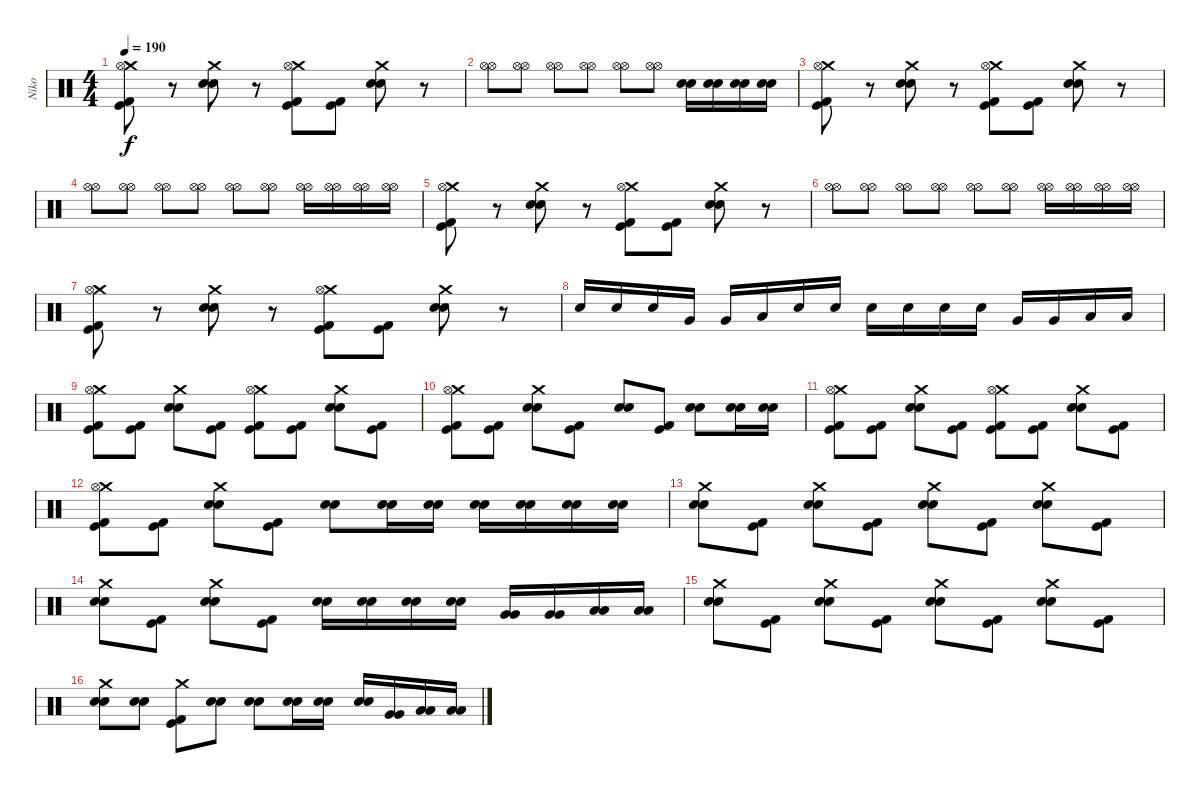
\track ("Niko" "Niko") {instrument percussion}
\staff {score}
\articulation defaults
\ts (4 4)
\tempo 190
\clef neutral
\ks c
("Crash medium (hit)" "Hi-Hat (open)" "Kick (hit)" "Kick (hit) 2").8{dy f} r.8 ("Crash medium (hit)" "Electric Snare (hit)" "Electric Snare (hit)").8 r.8 ("Crash medium (hit)" "Hi-Hat (open)" "Kick (hit)" "Kick (hit) 2").8 ("Kick (hit) 2" "Kick (hit)").8 ("Crash medium (hit)" "Electric Snare (hit)" "Electric Snare (hit)").8 r.8 |
("Hi-Hat (open)" "Hi-Hat (open)").8 ("Hi-Hat (open)" "Hi-Hat (open)").8 ("Hi-Hat (open)" "Hi-Hat (open)").8 ("Hi-Hat (open)" "Hi-Hat (open)").8 ("Hi-Hat (open)" "Hi-Hat (open)").8 ("Hi-Hat (open)" "Hi-Hat (open)").8 ("Electric Snare (hit)" "Electric Snare (hit)").16 ("Electric Snare (hit)" "Electric Snare (hit)").16 ("Electric Snare (hit)" "Electric Snare (hit)").16 ("Electric Snare (hit)" "Electric Snare (hit)").16 |
("Crash medium (hit)" "Hi-Hat (open)" "Kick (hit)" "Kick (hit) 2").8 r.8 ("Crash medium (hit)" "Electric Snare (hit)" "Electric Snare (hit)").8 r.8 ("Crash medium (hit)" "Hi-Hat (open)" "Kick (hit)" "Kick (hit) 2").8 ("Kick (hit) 2" "Kick (hit)").8 ("Crash medium (hit)" "Electric Snare (hit)" "Electric Snare (hit)").8 r.8 |
("Hi-Hat (open)" "Hi-Hat (open)").8 ("Hi-Hat (open)" "Hi-Hat (open)").8 ("Hi-Hat (open)" "Hi-Hat (open)").8 ("Hi-Hat (open)" "Hi-Hat (open)").8 ("Hi-Hat (open)" "Hi-Hat (open)").8 ("Hi-Hat (open)" "Hi-Hat (open)").8 ("Hi-Hat (open)" "Hi-Hat (open)").16 ("Hi-Hat (open)" "Hi-Hat (open)").16 ("Hi-Hat (open)" "Hi-Hat (open)").16 ("Hi-Hat (open)" "Hi-Hat (open)").16 |
("Crash medium (hit)" "Hi-Hat (open)" "Kick (hit)" "Kick (hit) 2").8 r.8 ("Crash medium (hit)" "Electric Snare (hit)" "Electric Snare (hit)").8 r.8 ("Crash medium (hit)" "Hi-Hat (open)" "Kick (hit)" "Kick (hit) 2").8 ("Kick (hit) 2" "Kick (hit)").8 ("Crash medium (hit)" "Electric Snare (hit)" "Electric Snare (hit)").8 r.8 |
("Hi-Hat (open)" "Hi-Hat (open)").8 ("Hi-Hat (open)" "Hi-Hat (open)").8 ("Hi-Hat (open)" "Hi-Hat (open)").8 ("Hi-Hat (open)" "Hi-Hat (open)").8 ("Hi-Hat (open)" "Hi-Hat (open)").8 ("Hi-Hat (open)" "Hi-Hat (open)").8 ("Hi-Hat (open)" "Hi-Hat (open)").16 ("Hi-Hat (open)" "Hi-Hat (open)").16 ("Hi-Hat (open)" "Hi-Hat (open)").16 ("Hi-Hat (open)" "Hi-Hat (open)").16 |
("Crash medium (hit)" "Hi-Hat (open)" "Kick (hit)" "Kick (hit) 2").8 r.8 ("Crash medium (hit)" "Electric Snare (hit)" "Electric Snare (hit)").8 r.8 ("Crash medium (hit)" "Hi-Hat (open)" "Kick (hit)" "Kick (hit) 2").8 ("Kick (hit) 2" "Kick (hit)").8 ("Crash medium (hit)" "Electric Snare (hit)" "Electric Snare (hit)").8 r.8 |
"Electric Snare (hit)".16 "Electric Snare (hit)".16 "Electric Snare (hit)".16 "Very Low Tom (hit)".16 "Very Low Tom (hit)".16 "Low Floor Tom (hit)".16 "Electric Snare (hit)".16 "Electric Snare (hit)".16 "Electric Snare (hit)".16 "Electric Snare (hit)".16 "Electric Snare (hit)".16 "Electric Snare (hit)".16 "Very Low Tom (hit)".16 "Very Low Tom (hit)".16 "Low Floor Tom (hit)".16 "Low Floor Tom (hit)".16 |
("Crash medium (hit)" "Hi-Hat (open)" "Kick (hit)" "Kick (hit) 2").8 ("Kick (hit) 2" "Kick (hit)").8 ("Crash medium (hit)" "Electric Snare (hit)" "Electric Snare (hit)").8 ("Kick (hit) 2" "Kick (hit)").8 ("Crash medium (hit)" "Hi-Hat (open)" "Kick (hit)" "Kick (hit) 2").8 ("Kick (hit) 2" "Kick (hit)").8 ("Crash medium (hit)" "Electric Snare (hit)" "Electric Snare (hit)").8 ("Kick (hit) 2" "Kick (hit)").8 |
("Crash medium (hit)" "Hi-Hat (open)" "Kick (hit)" "Kick (hit) 2").8 ("Kick (hit) 2" "Kick (hit)").8 ("Crash medium (hit)" "Electric Snare (hit)" "Electric Snare (hit)").8 ("Kick (hit) 2" "Kick (hit)").8 ("Electric Snare (hit)" "Electric Snare (hit)").8 ("Kick (hit) 2" "Kick (hit)").8 ("Electric Snare (hit)" "Electric Snare (hit)").8 ("Electric Snare (hit)" "Electric Snare (hit)").16 ("Electric Snare (hit)" "Electric Snare (hit)").16 |
("Crash medium (hit)" "Hi-Hat (open)" "Kick (hit)" "Kick (hit) 2").8 ("Kick (hit) 2" "Kick (hit)").8 ("Crash medium (hit)" "Electric Snare (hit)" "Electric Snare (hit)").8 ("Kick (hit) 2" "Kick (hit)").8 ("Crash medium (hit)" "Hi-Hat (open)" "Kick (hit)" "Kick (hit) 2").8 ("Kick (hit) 2" "Kick (hit)").8 ("Crash medium (hit)" "Electric Snare (hit)" "Electric Snare (hit)").8 ("Kick (hit) 2" "Kick (hit)").8 |
("Crash medium (hit)" "Hi-Hat (open)" "Kick (hit)" "Kick (hit) 2").8 ("Kick (hit) 2" "Kick (hit)").8 ("Crash medium (hit)" "Electric Snare (hit)" "Electric Snare (hit)").8 ("Kick (hit) 2" "Kick (hit)").8 ("Electric Snare (hit)" "Electric Snare (hit)").8 ("Electric Snare (hit)" "Electric Snare (hit)").16 ("Electric Snare (hit)" "Electric Snare (hit)").16 ("Electric Snare (hit)" "Electric Snare (hit)").16 ("Electric Snare (hit)" "Electric Snare (hit)").16 ("Electric Snare (hit)" "Electric Snare (hit)").16 ("Electric Snare (hit)" "Electric Snare (hit)").16 |
("Crash medium (hit)" "Electric Snare (hit)" "Electric Snare (hit)").8 ("Kick (hit) 2" "Kick (hit)").8 ("Crash medium (hit)" "Electric Snare (hit)" "Electric Snare (hit)").8 ("Kick (hit) 2" "Kick (hit)").8 ("Crash medium (hit)" "Electric Snare (hit)" "Electric Snare (hit)").8 ("Kick (hit) 2" "Kick (hit)").8 ("Crash medium (hit)" "Electric Snare (hit)" "Electric Snare (hit)").8 ("Kick (hit) 2" "Kick (hit)").8 |
("Crash medium (hit)" "Electric Snare (hit)" "Electric Snare (hit)").8 ("Kick (hit) 2" "Kick (hit)").8 ("Crash medium (hit)" "Electric Snare (hit)" "Electric Snare (hit)").8 ("Kick (hit) 2" "Kick (hit)").8 ("Electric Snare (hit)" "Electric Snare (hit)").16 ("Electric Snare (hit)" "Electric Snare (hit)").16 ("Electric Snare (hit)" "Electric Snare (hit)").16 ("Electric Snare (hit)" "Electric Snare (hit)").16 ("Very Low Tom (hit)" "Very Low Tom (hit)").16 ("Very Low Tom (hit)" "Very Low Tom (hit)").16 ("Low Floor Tom (hit)" "Low Floor Tom (hit)").16 ("Low Floor Tom (hit)" "Low Floor Tom (hit)").16 |
("Crash medium (hit)" "Electric Snare (hit)" "Electric Snare (hit)").8 ("Kick (hit) 2" "Kick (hit)").8 ("Crash medium (hit)" "Electric Snare (hit)" "Electric Snare (hit)").8 ("Kick (hit) 2" "Kick (hit)").8 ("Crash medium (hit)" "Electric Snare (hit)" "Electric Snare (hit)").8 ("Kick (hit) 2" "Kick (hit)").8 ("Crash medium (hit)" "Electric Snare (hit)" "Electric Snare (hit)").8 ("Kick (hit) 2" "Kick (hit)").8 |
("Crash medium (hit)" "Electric Snare (hit)" "Electric Snare (hit)").8 ("Electric Snare (hit)" "Electric Snare (hit)").8 ("Crash medium (hit)" "Kick (hit) 2" "Kick (hit)").8 ("Electric Snare (hit)" "Electric Snare (hit)").8 ("Electric Snare (hit)" "Electric Snare (hit)").8 ("Electric Snare (hit)" "Electric Snare (hit)").16 ("Electric Snare (hit)" "Electric Snare (hit)").16 ("Electric Snare (hit)" "Electric Snare (hit)").16 ("Very Low Tom (hit)" "Very Low Tom (hit)").16 ("Low Floor Tom (hit)" "Low Floor Tom (hit)").16 ("Low Floor Tom (hit)" "Low Floor Tom (hit)").16
